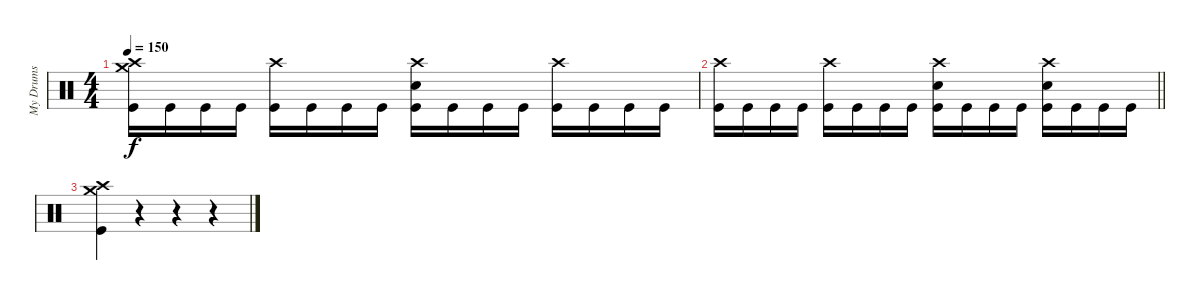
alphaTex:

\track ("My Drums" "My Drums") {instrument percussion}
\staff {score}
\articulation defaults
\ts (4 4)
\tempo 150
\clef neutral
\ks c
("Crash high (hit)" "Crash medium (hit)" "Kick (hit)").16{dy f} "Kick (hit)".16 "Kick (hit)".16 "Kick (hit)".16 ("Crash high (hit)" "Kick (hit)").16 "Kick (hit)".16 "Kick (hit)".16 "Kick (hit)".16 ("Crash high (hit)" "Snare (hit) 2" "Kick (hit)").16 "Kick (hit)".16 "Kick (hit)".16 "Kick (hit)".16 ("Crash high (hit)" "Kick (hit)").16 "Kick (hit)".16 "Kick (hit)".16 "Kick (hit)".16 |
\barLineRight lightlight
("Crash high (hit)" "Kick (hit)").16 "Kick (hit)".16 "Kick (hit)".16 "Kick (hit)".16 ("Crash high (hit)" "Kick (hit)").16 "Kick (hit)".16 "Kick (hit)".16 "Kick (hit)".16 ("Crash high (hit)" "Snare (hit) 2" "Kick (hit)").16 "Kick (hit)".16 "Kick (hit)".16 "Kick (hit)".16 ("Crash high (hit)" "Snare (hit) 2" "Kick (hit)").16 "Kick (hit)".16 "Kick (hit)".16 "Kick (hit)".16 |
("Crash high (hit)" "Crash medium (hit)" "Kick (hit)").4 r.4 r.4 r.4
